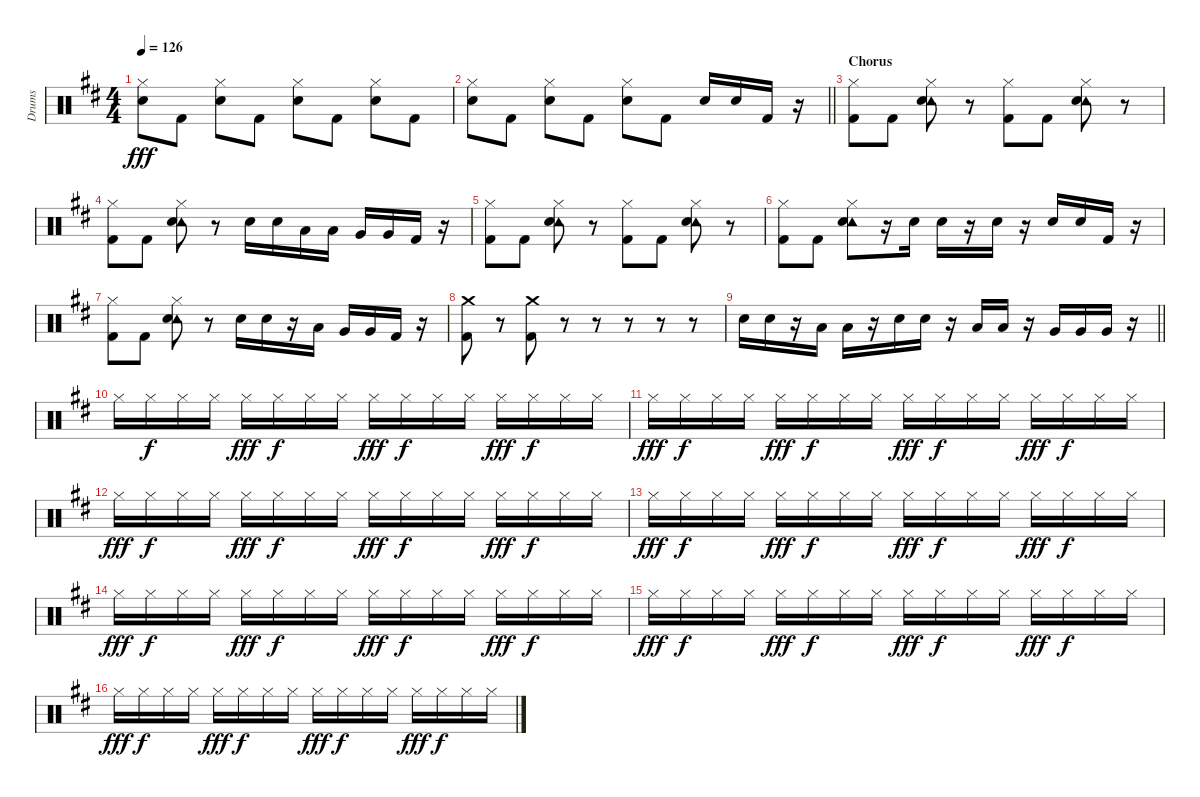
\track ("Drums" "Drums") {instrument percussion}
\staff {score}
\articulation defaults
\ts (4 4)
\tempo 126
\clef neutral
\ks d
("Hi-Hat (closed)" "Snare (hit) 2").8{dy fff} "Kick (hit) 2".8 ("Hi-Hat (closed)" "Snare (hit) 2").8 "Kick (hit) 2".8 ("Hi-Hat (closed)" "Snare (hit) 2").8 "Kick (hit) 2".8 ("Hi-Hat (closed)" "Snare (hit) 2").8 "Kick (hit) 2".8 |
\barLineRight lightlight
("Hi-Hat (closed)" "Snare (hit) 2").8 "Kick (hit) 2".8 ("Hi-Hat (closed)" "Snare (hit) 2").8 "Kick (hit) 2".8 ("Hi-Hat (closed)" "Snare (hit) 2").8 "Kick (hit) 2".8 "Snare (hit) 2".16 "Snare (hit) 2".16 "Kick (hit) 2".16 r.16 |
\section ("" "Chorus")
("Hi-Hat (closed)" "Kick (hit) 2").8 "Kick (hit) 2".8 ("Hi-Hat (closed)" "Tambourine (hit)" "Snare (hit) 2").8 r.8 ("Hi-Hat (closed)" "Kick (hit) 2").8 "Kick (hit) 2".8 ("Hi-Hat (closed)" "Tambourine (hit)" "Snare (hit) 2").8 r.8 |
("Hi-Hat (closed)" "Kick (hit) 2").8 "Kick (hit) 2".8 ("Hi-Hat (closed)" "Tambourine (hit)" "Snare (hit) 2").8 r.8 "Snare (hit) 2".16 "Snare (hit) 2".16 "Low Tom (hit)".16 "Low Tom (hit)".16 "Very Low Tom (hit)".16 "Very Low Tom (hit)".16 "Kick (hit) 2".16 r.16 |
("Hi-Hat (closed)" "Kick (hit) 2").8 "Kick (hit) 2".8 ("Hi-Hat (closed)" "Tambourine (hit)" "Snare (hit) 2").8 r.8 ("Hi-Hat (closed)" "Kick (hit) 2").8 "Kick (hit) 2".8 ("Hi-Hat (closed)" "Tambourine (hit)" "Snare (hit) 2").8 r.8 |
("Hi-Hat (closed)" "Kick (hit) 2").8 "Kick (hit) 2".8 ("Hi-Hat (closed)" "Tambourine (hit)" "Snare (hit) 2").8 r.16 "Snare (hit) 2".16 "Snare (hit) 2".16 r.16 "Snare (hit) 2".16 r.16 "Snare (hit) 2".16 "Snare (hit) 2".16 "Kick (hit) 2".16 r.16 |
("Hi-Hat (closed)" "Kick (hit) 2").8 "Kick (hit) 2".8 ("Hi-Hat (closed)" "Tambourine (hit)" "Snare (hit) 2").8 r.8 "Snare (hit) 2".16 "Snare (hit) 2".16 r.16 "Low Tom (hit)".16 "Very Low Tom (hit)".16 "Very Low Tom (hit)".16 "Kick (hit) 2".16 r.16 |
("Crash medium (hit)" "Kick (hit) 2").8 r.8 ("Crash medium (hit)" "Kick (hit) 2").8 r.8 r.8 r.8 r.8 r.8 |
\barLineRight lightlight "Snare (hit) 2".16 "Snare (hit) 2".16
r.16 "Low Tom (hit)".16 "Low Tom (hit)".16 r.16 "Snare (hit) 2".16 "Snare (hit) 2".16 r.16 "Low Tom (hit)".16 "Low Tom (hit)".16 r.16 "Very Low Tom (hit)".16 "Very Low Tom (hit)".16 "Very Low Tom (hit)".16 r.16 |
"Hi-Hat (closed)".16 "Hi-Hat (closed)".16{dy f} "Hi-Hat (closed)".16 "Hi-Hat (closed)".16 "Hi-Hat (closed)".16{dy fff} "Hi-Hat (closed)".16{dy f} "Hi-Hat (closed)".16 "Hi-Hat (closed)".16 "Hi-Hat (closed)".16{dy fff} "Hi-Hat (closed)".16{dy f} "Hi-Hat (closed)".16 "Hi-Hat (closed)".16 "Hi-Hat (closed)".16{dy fff} "Hi-Hat (closed)".16{dy f} "Hi-Hat (closed)".16 "Hi-Hat (closed)".16 |
"Hi-Hat (closed)".16{dy fff} "Hi-Hat (closed)".16{dy f} "Hi-Hat (closed)".16 "Hi-Hat (closed)".16 "Hi-Hat (closed)".16{dy fff} "Hi-Hat (closed)".16{dy f} "Hi-Hat (closed)".16 "Hi-Hat (closed)".16 "Hi-Hat (closed)".16{dy fff} "Hi-Hat (closed)".16{dy f} "Hi-Hat (closed)".16 "Hi-Hat (closed)".16 "Hi-Hat (closed)".16{dy fff} "Hi-Hat (closed)".16{dy f} "Hi-Hat (closed)".16 "Hi-Hat (closed)".16 |
"Hi-Hat (closed)".16{dy fff} "Hi-Hat (closed)".16{dy f} "Hi-Hat (closed)".16 "Hi-Hat (closed)".16 "Hi-Hat (closed)".16{dy fff} "Hi-Hat (closed)".16{dy f} "Hi-Hat (closed)".16 "Hi-Hat (closed)".16 "Hi-Hat (closed)".16{dy fff} "Hi-Hat (closed)".16{dy f} "Hi-Hat (closed)".16 "Hi-Hat (closed)".16 "Hi-Hat (closed)".16{dy fff} "Hi-Hat (closed)".16{dy f} "Hi-Hat (closed)".16 "Hi-Hat (closed)".16 |
"Hi-Hat (closed)".16{dy fff} "Hi-Hat (closed)".16{dy f} "Hi-Hat (closed)".16 "Hi-Hat (closed)".16 "Hi-Hat (closed)".16{dy fff} "Hi-Hat (closed)".16{dy f} "Hi-Hat (closed)".16 "Hi-Hat (closed)".16 "Hi-Hat (closed)".16{dy fff} "Hi-Hat (closed)".16{dy f} "Hi-Hat (closed)".16 "Hi-Hat (closed)".16 "Hi-Hat (closed)".16{dy fff} "Hi-Hat (closed)".16{dy f} "Hi-Hat (closed)".16 "Hi-Hat (closed)".16 |
"Hi-Hat (closed)".16{dy fff} "Hi-Hat (closed)".16{dy f} "Hi-Hat (closed)".16 "Hi-Hat (closed)".16 "Hi-Hat (closed)".16{dy fff} "Hi-Hat (closed)".16{dy f} "Hi-Hat (closed)".16 "Hi-Hat (closed)".16 "Hi-Hat (closed)".16{dy fff} "Hi-Hat (closed)".16{dy f} "Hi-Hat (closed)".16 "Hi-Hat (closed)".16 "Hi-Hat (closed)".16{dy fff} "Hi-Hat (closed)".16{dy f} "Hi-Hat (closed)".16 "Hi-Hat (closed)".16 |
"Hi-Hat (closed)".16{dy fff} "Hi-Hat (closed)".16{dy f} "Hi-Hat (closed)".16 "Hi-Hat (closed)".16 "Hi-Hat (closed)".16{dy fff} "Hi-Hat (closed)".16{dy f} "Hi-Hat (closed)".16 "Hi-Hat (closed)".16 "Hi-Hat (closed)".16{dy fff} "Hi-Hat (closed)".16{dy f} "Hi-Hat (closed)".16 "Hi-Hat (closed)".16 "Hi-Hat (closed)".16{dy fff} "Hi-Hat (closed)".16{dy f} "Hi-Hat (closed)".16 "Hi-Hat (closed)".16 |
"Hi-Hat (closed)".16{dy fff} "Hi-Hat (closed)".16{dy f} "Hi-Hat (closed)".16 "Hi-Hat (closed)".16 "Hi-Hat (closed)".16{dy fff} "Hi-Hat (closed)".16{dy f} "Hi-Hat (closed)".16 "Hi-Hat (closed)".16 "Hi-Hat (closed)".16{dy fff} "Hi-Hat (closed)".16{dy f} "Hi-Hat (closed)".16 "Hi-Hat (closed)".16 "Hi-Hat (closed)".16{dy fff} "Hi-Hat (closed)".16{dy f} "Hi-Hat (closed)".16 "Hi-Hat (closed)".16
